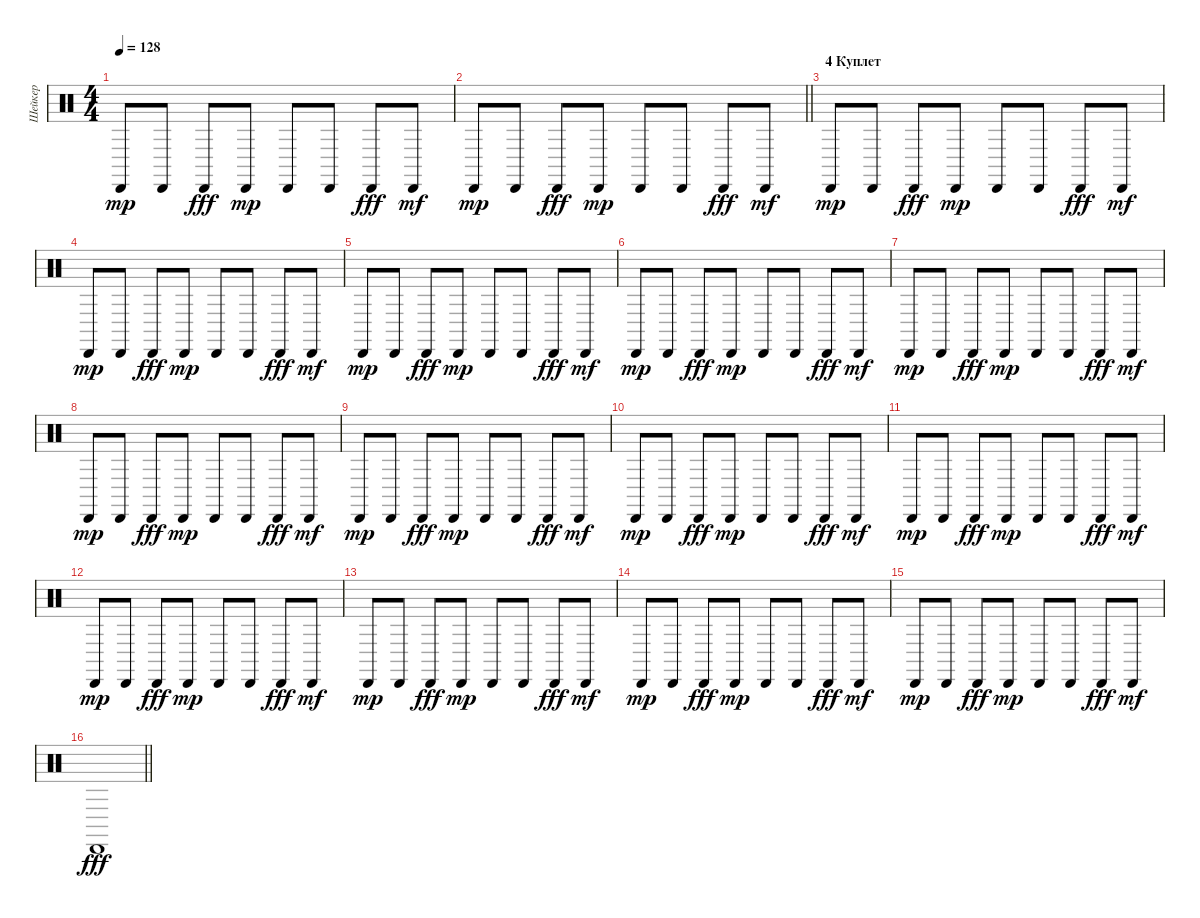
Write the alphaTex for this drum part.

\track ("Шейкер" "Шейкер") {instrument percussion}
\staff {score}
\articulation defaults
\ts (4 4)
\tempo 128
\clef neutral
\ks c "Cabasa (hit)".8{dy mp} "Cabasa (hit)".8 "Cabasa (hit)".8{dy fff} "Cabasa (hit)".8{dy mp} "Cabasa (hit)".8 "Cabasa (hit)".8 "Cabasa (hit)".8{dy fff} "Cabasa (hit)".8{dy mf}
|
\barLineRight lightlight "Cabasa (hit)".8{dy mp} "Cabasa (hit)".8 "Cabasa (hit)".8{dy fff} "Cabasa (hit)".8{dy mp} "Cabasa (hit)".8 "Cabasa (hit)".8 "Cabasa (hit)".8{dy fff} "Cabasa (hit)".8{dy mf}
|
\section ("" "4 Куплет")
"Cabasa (hit)".8{dy mp} "Cabasa (hit)".8 "Cabasa (hit)".8{dy fff} "Cabasa (hit)".8{dy mp} "Cabasa (hit)".8 "Cabasa (hit)".8 "Cabasa (hit)".8{dy fff} "Cabasa (hit)".8{dy mf} |
"Cabasa (hit)".8{dy mp} "Cabasa (hit)".8 "Cabasa (hit)".8{dy fff} "Cabasa (hit)".8{dy mp} "Cabasa (hit)".8 "Cabasa (hit)".8 "Cabasa (hit)".8{dy fff} "Cabasa (hit)".8{dy mf} |
"Cabasa (hit)".8{dy mp} "Cabasa (hit)".8 "Cabasa (hit)".8{dy fff} "Cabasa (hit)".8{dy mp} "Cabasa (hit)".8 "Cabasa (hit)".8 "Cabasa (hit)".8{dy fff} "Cabasa (hit)".8{dy mf} |
"Cabasa (hit)".8{dy mp} "Cabasa (hit)".8 "Cabasa (hit)".8{dy fff} "Cabasa (hit)".8{dy mp} "Cabasa (hit)".8 "Cabasa (hit)".8 "Cabasa (hit)".8{dy fff} "Cabasa (hit)".8{dy mf} |
"Cabasa (hit)".8{dy mp} "Cabasa (hit)".8 "Cabasa (hit)".8{dy fff} "Cabasa (hit)".8{dy mp} "Cabasa (hit)".8 "Cabasa (hit)".8 "Cabasa (hit)".8{dy fff} "Cabasa (hit)".8{dy mf} |
"Cabasa (hit)".8{dy mp} "Cabasa (hit)".8 "Cabasa (hit)".8{dy fff} "Cabasa (hit)".8{dy mp} "Cabasa (hit)".8 "Cabasa (hit)".8 "Cabasa (hit)".8{dy fff} "Cabasa (hit)".8{dy mf} |
"Cabasa (hit)".8{dy mp} "Cabasa (hit)".8 "Cabasa (hit)".8{dy fff} "Cabasa (hit)".8{dy mp} "Cabasa (hit)".8 "Cabasa (hit)".8 "Cabasa (hit)".8{dy fff} "Cabasa (hit)".8{dy mf} |
"Cabasa (hit)".8{dy mp} "Cabasa (hit)".8 "Cabasa (hit)".8{dy fff} "Cabasa (hit)".8{dy mp} "Cabasa (hit)".8 "Cabasa (hit)".8 "Cabasa (hit)".8{dy fff} "Cabasa (hit)".8{dy mf} |
"Cabasa (hit)".8{dy mp} "Cabasa (hit)".8 "Cabasa (hit)".8{dy fff} "Cabasa (hit)".8{dy mp} "Cabasa (hit)".8 "Cabasa (hit)".8 "Cabasa (hit)".8{dy fff} "Cabasa (hit)".8{dy mf} |
"Cabasa (hit)".8{dy mp} "Cabasa (hit)".8 "Cabasa (hit)".8{dy fff} "Cabasa (hit)".8{dy mp} "Cabasa (hit)".8 "Cabasa (hit)".8 "Cabasa (hit)".8{dy fff} "Cabasa (hit)".8{dy mf} |
"Cabasa (hit)".8{dy mp} "Cabasa (hit)".8 "Cabasa (hit)".8{dy fff} "Cabasa (hit)".8{dy mp} "Cabasa (hit)".8 "Cabasa (hit)".8 "Cabasa (hit)".8{dy fff} "Cabasa (hit)".8{dy mf} |
"Cabasa (hit)".8{dy mp} "Cabasa (hit)".8 "Cabasa (hit)".8{dy fff} "Cabasa (hit)".8{dy mp} "Cabasa (hit)".8 "Cabasa (hit)".8 "Cabasa (hit)".8{dy fff} "Cabasa (hit)".8{dy mf} |
"Cabasa (hit)".8{dy mp} "Cabasa (hit)".8 "Cabasa (hit)".8{dy fff} "Cabasa (hit)".8{dy mp} "Cabasa (hit)".8 "Cabasa (hit)".8 "Cabasa (hit)".8{dy fff} "Cabasa (hit)".8{dy mf} |
\barLineRight lightlight "Cabasa (hit)".1{dy fff}
